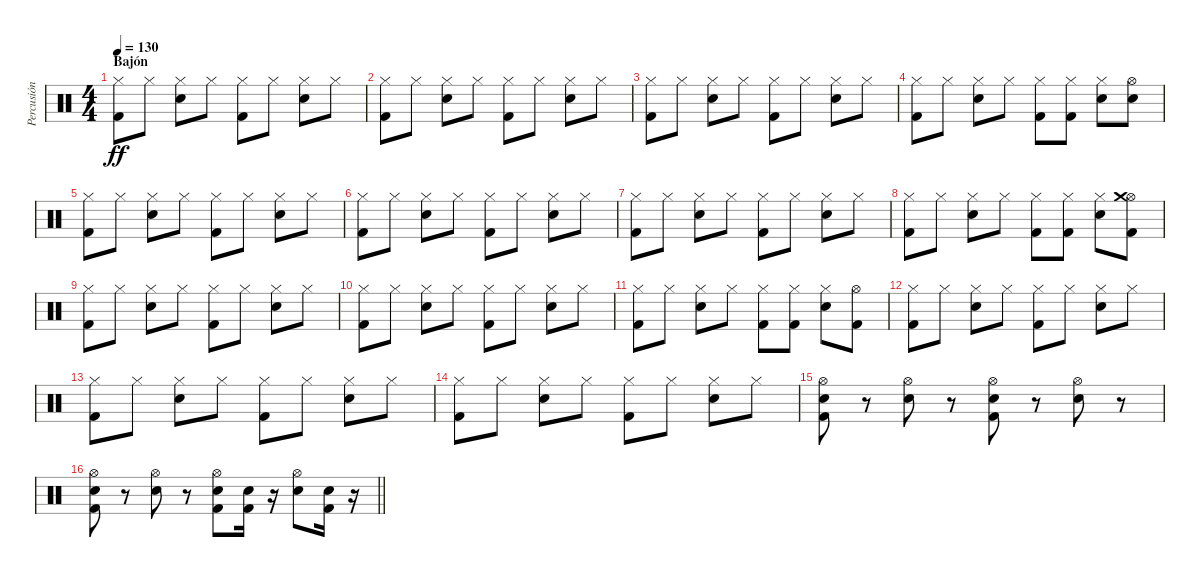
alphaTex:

\track ("Percusión" "Percusión") {instrument percussion}
\staff {score}
\articulation defaults
\ts (4 4)
\section ("" "Bajón")
\tempo 130
\clef neutral
\ks c
("Kick (hit) 2" "Hi-Hat (closed)").8{dy ff} "Hi-Hat (closed)".8 ("Snare (hit) 2" "Hi-Hat (closed)").8 "Hi-Hat (closed)".8 ("Kick (hit) 2" "Hi-Hat (closed)").8 "Hi-Hat (closed)".8 ("Snare (hit) 2" "Hi-Hat (closed)").8 "Hi-Hat (closed)".8 |
("Kick (hit) 2" "Hi-Hat (closed)").8 "Hi-Hat (closed)".8 ("Snare (hit) 2" "Hi-Hat (closed)").8 "Hi-Hat (closed)".8 ("Kick (hit) 2" "Hi-Hat (closed)").8 "Hi-Hat (closed)".8 ("Snare (hit) 2" "Hi-Hat (closed)").8 "Hi-Hat (closed)".8 |
("Kick (hit) 2" "Hi-Hat (closed)").8 "Hi-Hat (closed)".8 ("Snare (hit) 2" "Hi-Hat (closed)").8 "Hi-Hat (closed)".8 ("Kick (hit) 2" "Hi-Hat (closed)").8 "Hi-Hat (closed)".8 ("Snare (hit) 2" "Hi-Hat (closed)").8 "Hi-Hat (closed)".8 |
("Kick (hit) 2" "Hi-Hat (closed)").8 "Hi-Hat (closed)".8 ("Snare (hit) 2" "Hi-Hat (closed)").8 "Hi-Hat (closed)".8 ("Kick (hit) 2" "Hi-Hat (closed)").8 ("Kick (hit) 2" "Hi-Hat (closed)").8 ("Snare (hit) 2" "Hi-Hat (closed)").8 ("Snare (hit) 2" "Hi-Hat (open)").8 |
("Kick (hit) 2" "Hi-Hat (closed)").8 "Hi-Hat (closed)".8 ("Snare (hit) 2" "Hi-Hat (closed)").8 "Hi-Hat (closed)".8 ("Kick (hit) 2" "Hi-Hat (closed)").8 "Hi-Hat (closed)".8 ("Snare (hit) 2" "Hi-Hat (closed)").8 "Hi-Hat (closed)".8 |
("Kick (hit) 2" "Hi-Hat (closed)").8 "Hi-Hat (closed)".8 ("Snare (hit) 2" "Hi-Hat (closed)").8 "Hi-Hat (closed)".8 ("Kick (hit) 2" "Hi-Hat (closed)").8 "Hi-Hat (closed)".8 ("Snare (hit) 2" "Hi-Hat (closed)").8 "Hi-Hat (closed)".8 |
("Kick (hit) 2" "Hi-Hat (closed)").8 "Hi-Hat (closed)".8 ("Snare (hit) 2" "Hi-Hat (closed)").8 "Hi-Hat (closed)".8 ("Kick (hit) 2" "Hi-Hat (closed)").8 "Hi-Hat (closed)".8 ("Snare (hit) 2" "Hi-Hat (closed)").8 "Hi-Hat (closed)".8 |
("Kick (hit) 2" "Hi-Hat (closed)").8 "Hi-Hat (closed)".8 ("Snare (hit) 2" "Hi-Hat (closed)").8 "Hi-Hat (closed)".8 ("Kick (hit) 2" "Hi-Hat (closed)").8 ("Kick (hit) 2" "Hi-Hat (closed)").8 ("Snare (hit) 2" "Hi-Hat (closed)").8 ("Kick (hit) 2" "Hi-Hat (open)" "Crash medium (hit)").8 |
("Kick (hit) 2" "Hi-Hat (closed)").8 "Hi-Hat (closed)".8 ("Snare (hit) 2" "Hi-Hat (closed)").8 "Hi-Hat (closed)".8 ("Kick (hit) 2" "Hi-Hat (closed)").8 "Hi-Hat (closed)".8 ("Snare (hit) 2" "Hi-Hat (closed)").8 "Hi-Hat (closed)".8 |
("Kick (hit) 2" "Hi-Hat (closed)").8 "Hi-Hat (closed)".8 ("Snare (hit) 2" "Hi-Hat (closed)").8 "Hi-Hat (closed)".8 ("Kick (hit) 2" "Hi-Hat (closed)").8 "Hi-Hat (closed)".8 ("Snare (hit) 2" "Hi-Hat (closed)").8 "Hi-Hat (closed)".8 |
("Kick (hit) 2" "Hi-Hat (closed)").8 "Hi-Hat (closed)".8 ("Snare (hit) 2" "Hi-Hat (closed)").8 "Hi-Hat (closed)".8 ("Kick (hit) 2" "Hi-Hat (closed)").8 ("Kick (hit) 2" "Hi-Hat (closed)").8 ("Snare (hit) 2" "Hi-Hat (closed)").8 ("Kick (hit) 2" "Hi-Hat (open)").8 |
("Kick (hit) 2" "Hi-Hat (closed)").8 "Hi-Hat (closed)".8 ("Snare (hit) 2" "Hi-Hat (closed)").8 "Hi-Hat (closed)".8 ("Kick (hit) 2" "Hi-Hat (closed)").8 "Hi-Hat (closed)".8 ("Snare (hit) 2" "Hi-Hat (closed)").8 "Hi-Hat (closed)".8 |
("Kick (hit) 2" "Hi-Hat (closed)").8 "Hi-Hat (closed)".8 ("Snare (hit) 2" "Hi-Hat (closed)").8 "Hi-Hat (closed)".8 ("Kick (hit) 2" "Hi-Hat (closed)").8 "Hi-Hat (closed)".8 ("Snare (hit) 2" "Hi-Hat (closed)").8 "Hi-Hat (closed)".8 |
("Kick (hit) 2" "Hi-Hat (closed)").8 "Hi-Hat (closed)".8 ("Snare (hit) 2" "Hi-Hat (closed)").8 "Hi-Hat (closed)".8 ("Kick (hit) 2" "Hi-Hat (closed)").8 "Hi-Hat (closed)".8 ("Snare (hit) 2" "Hi-Hat (closed)").8 "Hi-Hat (closed)".8 |
("Kick (hit) 2" "Snare (hit) 2" "Hi-Hat (open)").8 r.8 ("Snare (hit) 2" "Hi-Hat (open)").8 r.8 ("Kick (hit) 2" "Snare (hit) 2" "Hi-Hat (open)").8 r.8 ("Snare (hit) 2" "Hi-Hat (open)").8 r.8 |
\barLineRight lightlight
("Kick (hit) 2" "Snare (hit) 2" "Hi-Hat (open)").8 r.8 ("Snare (hit) 2" "Hi-Hat (open)").8 r.8 ("Kick (hit) 2" "Snare (hit) 2" "Hi-Hat (open)").8 ("Kick (hit) 2" "Snare (hit) 2").16 r.16 ("Snare (hit) 2" "Hi-Hat (open)").8 ("Kick (hit) 2" "Snare (hit) 2").16 r.16
